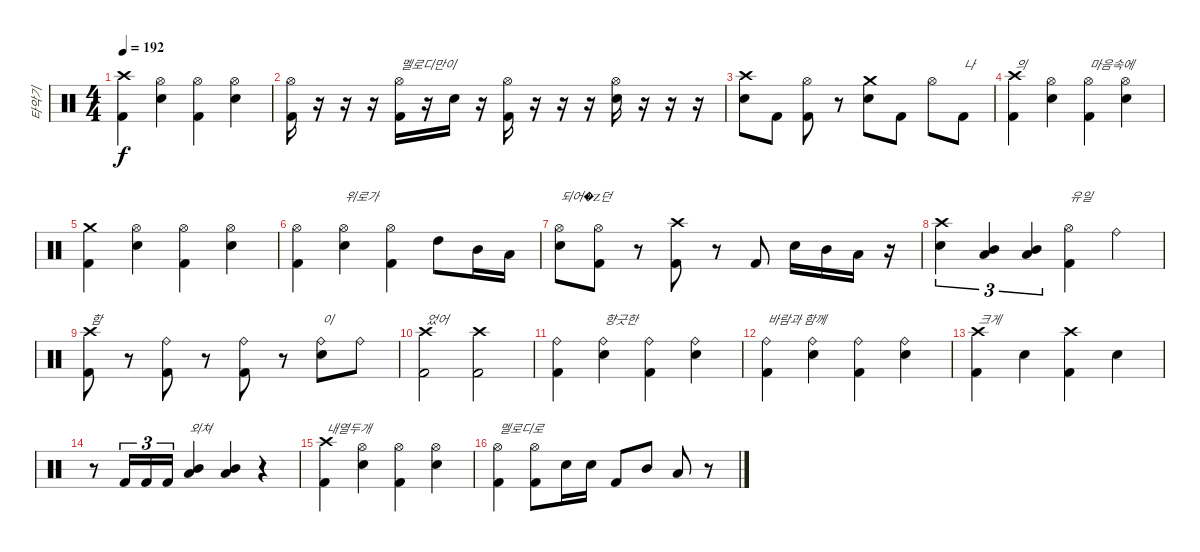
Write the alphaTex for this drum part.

\track ("타악기" "타악기") {instrument percussion}
\staff {score}
\articulation defaults
\ts (4 4)
\tempo 192
\clef neutral
\ks c
("Crash high (hit)" "Kick (hit) 2").4{dy f} ("Hi-Hat (open)" "Snare (hit) 2").4 ("Hi-Hat (open)" "Kick (hit) 2").4 ("Hi-Hat (open)" "Snare (hit) 2").4 |
("Hi-Hat (open)" "Kick (hit) 2").16 r.16 r.16 r.16 ("Hi-Hat (open)" "Kick (hit) 2").16{txt "멜로디만이"} r.16 "Snare (hit) 2".16 r.16 ("Hi-Hat (open)" "Kick (hit) 2").16 r.16 r.16 r.16 ("Hi-Hat (open)" "Snare (hit) 2").16 r.16 r.16 r.16 |
("Crash high (hit)" "Snare (hit) 2").8 "Kick (hit) 2".8 ("Hi-Hat (open)" "Kick (hit) 2").8 r.8 ("Crash medium (hit)" "Snare (hit) 2").8 "Kick (hit) 2".8 "Hi-Hat (open)".8 "Kick (hit) 2".8{txt "나"} |
("Crash high (hit)" "Kick (hit) 2").4{txt "의"} ("Hi-Hat (open)" "Snare (hit) 2").4 ("Hi-Hat (open)" "Kick (hit) 2").4{txt "마음속에"} ("Hi-Hat (open)" "Snare (hit) 2").4 |
("Crash medium (hit)" "Kick (hit) 2").4 ("Hi-Hat (open)" "Snare (hit) 2").4 ("Hi-Hat (open)" "Kick (hit) 2").4 ("Hi-Hat (open)" "Snare (hit) 2").4 |
("Hi-Hat (open)" "Kick (hit) 2").4 ("Hi-Hat (open)" "Snare (hit) 2").4{txt "위로가"} ("Hi-Hat (open)" "Kick (hit) 2").4 "High Tom (hit)".8 "Mid Tom (hit)".16 "Low Tom (hit)".16 |
("Hi-Hat (open)" "Snare (hit) 2").8{txt "되어�Z던"} ("Hi-Hat (open)" "Kick (hit) 2").8 r.8 ("Crash high (hit)" "Kick (hit) 2").8 r.8 "Kick (hit) 2".8 "Snare (hit) 2".16 "Mid Tom (hit)".16 "Low Tom (hit)".16 r.16 |
("Crash high (hit)" "Snare (hit) 2").4{tu (3 2)} ("Mid Tom (hit)" "Low Tom (hit)").4{tu (3 2) bu 480} ("Mid Tom (hit)" "Low Tom (hit)").4{tu (3 2) bu 480} ("Hi-Hat (open)" "Kick (hit) 2").4{txt "유일"} "Ride (bell)".4 |
("Crash high (hit)" "Kick (hit) 2").8{txt "함"} r.8 ("Ride (bell)" "Kick (hit) 2").8 r.8 ("Ride (bell)" "Kick (hit) 2").8 r.8 ("Ride (bell)" "Snare (hit) 2").8{txt "이"} "Ride (bell)".8 |
("Crash high (hit)" "Kick (hit) 2").2{txt "었어"} ("Crash high (hit)" "Kick (hit) 2").2 |
("Ride (bell)" "Kick (hit) 2").4 ("Ride (bell)" "Snare (hit) 2").4{txt "향긋한"} ("Ride (bell)" "Kick (hit) 2").4 ("Ride (bell)" "Snare (hit) 2").4 |
("Ride (bell)" "Kick (hit) 2").4{txt "바람과 함께"} ("Ride (bell)" "Snare (hit) 2").4 ("Ride (bell)" "Kick (hit) 2").4 ("Ride (bell)" "Snare (hit) 2").4 |
("Crash high (hit)" "Kick (hit) 2").4{txt "크게"} "Snare (hit) 2".4 ("Crash high (hit)" "Kick (hit) 2").4 "Snare (hit) 2".4 |
r.8 "Kick (hit) 2".16{tu (3 2)} "Kick (hit) 2".16{tu (3 2)} "Kick (hit) 2".16{tu (3 2)} ("Mid Tom (hit)" "Low Tom (hit)").4{bu 480 txt "외쳐"} ("Mid Tom (hit)" "Low Tom (hit)").4{bu 480} r.4 |
("Crash high (hit)" "Kick (hit) 2").4{txt "내열두개"} ("Hi-Hat (open)" "Snare (hit) 2").4 ("Hi-Hat (open)" "Kick (hit) 2").4 ("Hi-Hat (open)" "Snare (hit) 2").4 |
("Hi-Hat (open)" "Kick (hit) 2").4{txt "멜로디로"} ("Hi-Hat (open)" "Kick (hit) 2").8 "Snare (hit) 2".16 "Snare (hit) 2".16 "Kick (hit) 2".8 "Mid Tom (hit)".8 "Low Tom (hit)".8 r.8
